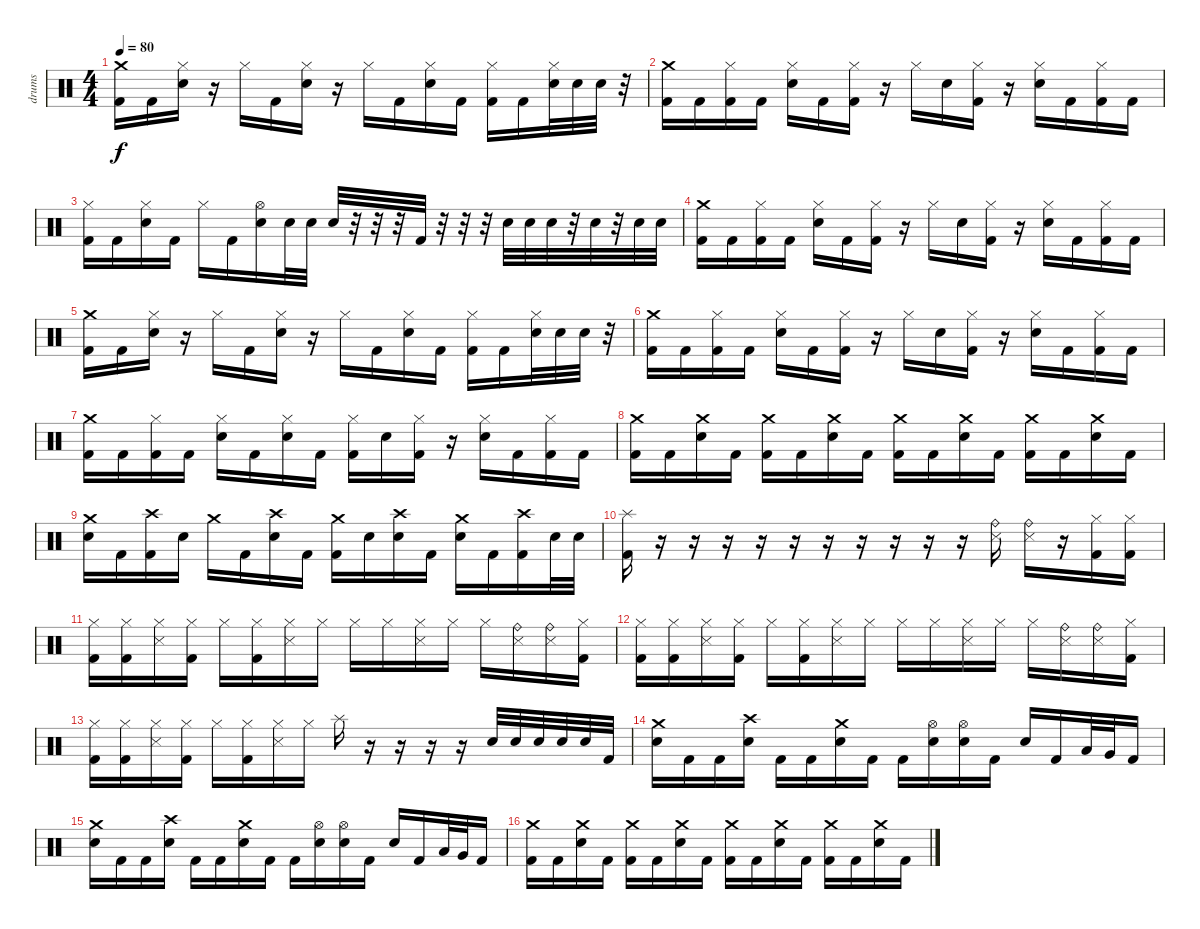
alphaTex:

\track ("drums" "drums") {instrument percussion}
\staff {score}
\articulation defaults
\ts (4 4)
\tempo 80
\clef neutral
\ks c
("Crash medium (hit)" "Kick (hit) 2").16{dy f} "Kick (hit) 2".16 ("Hi-Hat (closed)" "Electric Snare (hit)").16 r.16 "Hi-Hat (closed)".16 "Kick (hit) 2".16 ("Hi-Hat (closed)" "Electric Snare (hit)").16 r.16 "Hi-Hat (closed)".16 "Kick (hit) 2".16 ("Hi-Hat (closed)" "Electric Snare (hit)").16 "Kick (hit) 2".16 ("Hi-Hat (closed)" "Kick (hit) 2").16 "Kick (hit) 2".16 ("Hi-Hat (closed)" "Electric Snare (hit)").32 "Electric Snare (hit)".32 "Electric Snare (hit)".32 r.32 |
("Crash medium (hit)" "Kick (hit) 2").16 "Kick (hit) 2".16 ("Hi-Hat (closed)" "Kick (hit) 2").16 "Kick (hit) 2".16 ("Hi-Hat (closed)" "Electric Snare (hit)").16 "Kick (hit) 2".16 ("Hi-Hat (closed)" "Kick (hit) 2").16 r.16 "Hi-Hat (closed)".16 "Electric Snare (hit)".16 ("Hi-Hat (closed)" "Kick (hit) 2").16 r.16 ("Hi-Hat (closed)" "Electric Snare (hit)").16 "Kick (hit) 2".16 ("Hi-Hat (closed)" "Kick (hit) 2").16 "Kick (hit) 2".16 |
("Hi-Hat (closed)" "Kick (hit) 2").16 "Kick (hit) 2".16 ("Hi-Hat (closed)" "Electric Snare (hit)").16 "Kick (hit) 2".16 "Hi-Hat (closed)".16 "Kick (hit) 2".16 ("Hi-Hat (open)" "Electric Snare (hit)").16 "Electric Snare (hit)".32 "Electric Snare (hit)".32 "Electric Snare (hit)".32 r.32 r.32 r.32 "Kick (hit) 2".32 r.32 r.32 r.32 "Electric Snare (hit)".32 "Electric Snare (hit)".32 "Electric Snare (hit)".32 r.32 "Electric Snare (hit)".32 r.32 "Electric Snare (hit)".32 "Electric Snare (hit)".32 |
("Crash medium (hit)" "Kick (hit) 2").16 "Kick (hit) 2".16 ("Hi-Hat (closed)" "Kick (hit) 2").16 "Kick (hit) 2".16 ("Hi-Hat (closed)" "Electric Snare (hit)").16 "Kick (hit) 2".16 ("Hi-Hat (closed)" "Kick (hit) 2").16 r.16 "Hi-Hat (closed)".16 "Electric Snare (hit)".16 ("Hi-Hat (closed)" "Kick (hit) 2").16 r.16 ("Hi-Hat (closed)" "Electric Snare (hit)").16 "Kick (hit) 2".16 ("Hi-Hat (closed)" "Kick (hit) 2").16 "Kick (hit) 2".16 |
("Crash medium (hit)" "Kick (hit) 2").16 "Kick (hit) 2".16 ("Hi-Hat (closed)" "Electric Snare (hit)").16 r.16 "Hi-Hat (closed)".16 "Kick (hit) 2".16 ("Hi-Hat (closed)" "Electric Snare (hit)").16 r.16 "Hi-Hat (closed)".16 "Kick (hit) 2".16 ("Hi-Hat (closed)" "Electric Snare (hit)").16 "Kick (hit) 2".16 ("Hi-Hat (closed)" "Kick (hit) 2").16 "Kick (hit) 2".16 ("Hi-Hat (closed)" "Electric Snare (hit)").32 "Electric Snare (hit)".32 "Electric Snare (hit)".32 r.32 |
("Crash medium (hit)" "Kick (hit) 2").16 "Kick (hit) 2".16 ("Hi-Hat (closed)" "Kick (hit) 2").16 "Kick (hit) 2".16 ("Hi-Hat (closed)" "Electric Snare (hit)").16 "Kick (hit) 2".16 ("Hi-Hat (closed)" "Kick (hit) 2").16 r.16 "Hi-Hat (closed)".16 "Electric Snare (hit)".16 ("Hi-Hat (closed)" "Kick (hit) 2").16 r.16 ("Hi-Hat (closed)" "Electric Snare (hit)").16 "Kick (hit) 2".16 ("Hi-Hat (closed)" "Kick (hit) 2").16 "Kick (hit) 2".16 |
("Crash medium (hit)" "Kick (hit) 2").16 "Kick (hit) 2".16 ("Hi-Hat (closed)" "Kick (hit) 2").16 "Kick (hit) 2".16 ("Hi-Hat (closed)" "Electric Snare (hit)").16 "Kick (hit) 2".16 ("Hi-Hat (closed)" "Electric Snare (hit)").16 "Kick (hit) 2".16 ("Hi-Hat (closed)" "Kick (hit) 2").16 "Electric Snare (hit)".16 ("Hi-Hat (closed)" "Kick (hit) 2").16 r.16 ("Hi-Hat (closed)" "Electric Snare (hit)").16 "Kick (hit) 2".16 ("Hi-Hat (closed)" "Kick (hit) 2").16 "Kick (hit) 2".16 |
("Crash medium (hit)" "Kick (hit) 2").16 "Kick (hit) 2".16 ("Crash medium (hit)" "Electric Snare (hit)").16 "Kick (hit) 2".16 ("Crash medium (hit)" "Kick (hit) 2").16 "Kick (hit) 2".16 ("Crash medium (hit)" "Electric Snare (hit)").16 "Kick (hit) 2".16 ("Crash medium (hit)" "Kick (hit) 2").16 "Kick (hit) 2".16 ("Crash medium (hit)" "Electric Snare (hit)").16 "Kick (hit) 2".16 ("Crash medium (hit)" "Kick (hit) 2").16 "Kick (hit) 2".16 ("Crash medium (hit)" "Electric Snare (hit)").16 "Kick (hit) 2".16 |
("Crash medium (hit)" "Electric Snare (hit)").16 "Kick (hit) 2".16 ("Crash high (hit)" "Kick (hit) 2").16 "Electric Snare (hit)".16 "Crash medium (hit)".16 "Kick (hit) 2".16 ("Crash high (hit)" "Electric Snare (hit)").16 "Kick (hit) 2".16 ("Crash medium (hit)" "Kick (hit) 2").16 "Electric Snare (hit)".16 ("Crash high (hit)" "Electric Snare (hit)").16 "Kick (hit) 2".16 ("Crash medium (hit)" "Electric Snare (hit)").16 "Kick (hit) 2".16 ("Crash high (hit)" "Kick (hit) 2").16 "Electric Snare (hit)".32 "Electric Snare (hit)".32 |
("Splash (hit)" "Kick (hit) 2").16 r.16 r.16 r.16 r.16 r.16 r.16 r.16 r.16 r.16 r.16 ("Ride (bell)" "Snare (side stick) 3").16 ("Snare (side stick) 3" "Ride (bell)").16 r.16 ("Hi-Hat (closed)" "Kick (hit) 2").16 ("Hi-Hat (closed)" "Kick (hit) 2").16 |
("Hi-Hat (closed)" "Kick (hit) 2").16 ("Hi-Hat (closed)" "Kick (hit) 2").16 ("Hi-Hat (closed)" "Snare (side stick) 3").16 ("Hi-Hat (closed)" "Kick (hit) 2").16 "Hi-Hat (closed)".16 ("Hi-Hat (closed)" "Kick (hit) 2").16 ("Hi-Hat (closed)" "Snare (side stick) 3").16 "Hi-Hat (closed)".16 "Hi-Hat (closed)".16 "Hi-Hat (closed)".16 ("Hi-Hat (closed)" "Snare (side stick) 3").16 "Hi-Hat (closed)".16 "Hi-Hat (closed)".16 ("Ride (bell)" "Snare (side stick) 3").16 ("Ride (bell)" "Snare (side stick) 3").16 ("Hi-Hat (closed)" "Kick (hit) 2").16 |
("Hi-Hat (closed)" "Kick (hit) 2").16 ("Hi-Hat (closed)" "Kick (hit) 2").16 ("Hi-Hat (closed)" "Snare (side stick) 3").16 ("Hi-Hat (closed)" "Kick (hit) 2").16 "Hi-Hat (closed)".16 ("Hi-Hat (closed)" "Kick (hit) 2").16 ("Hi-Hat (closed)" "Snare (side stick) 3").16 "Hi-Hat (closed)".16 "Hi-Hat (closed)".16 "Hi-Hat (closed)".16 ("Hi-Hat (closed)" "Snare (side stick) 3").16 "Hi-Hat (closed)".16 "Hi-Hat (closed)".16 ("Ride (bell)" "Snare (side stick) 3").16 ("Ride (bell)" "Snare (side stick) 3").16 ("Hi-Hat (closed)" "Kick (hit) 2").16 |
("Hi-Hat (closed)" "Kick (hit) 2").16 ("Hi-Hat (closed)" "Kick (hit) 2").16 ("Hi-Hat (closed)" "Snare (side stick) 3").16 ("Hi-Hat (closed)" "Kick (hit) 2").16 "Hi-Hat (closed)".16 ("Hi-Hat (closed)" "Kick (hit) 2").16 ("Hi-Hat (closed)" "Snare (side stick) 3").16 "Hi-Hat (closed)".16 "Splash (hit)".16 r.16 r.16 r.16 r.16 "Electric Snare (hit)".32 "Electric Snare (hit)".32 "Electric Snare (hit)".32 "Electric Snare (hit)".32 "Electric Snare (hit)".32 "Kick (hit) 2".32 |
("Crash medium (hit)" "Electric Snare (hit)").16 "Kick (hit) 2".16 "Kick (hit) 2".16 ("Crash high (hit)" "Electric Snare (hit)").16 "Kick (hit) 2".16 "Kick (hit) 2".16 ("Crash medium (hit)" "Electric Snare (hit)").16 "Kick (hit) 2".16 "Kick (hit) 2".16 ("Hi-Hat (open)" "Electric Snare (hit)").16 ("Hi-Hat (open)" "Electric Snare (hit)").16 "Kick (hit) 2".16 "Electric Snare (hit)".16 "Kick (hit) 2".16 "Low Floor Tom (hit)".32 "Very Low Tom (hit)".32 "Kick (hit) 2".16 |
("Crash medium (hit)" "Electric Snare (hit)").16 "Kick (hit) 2".16 "Kick (hit) 2".16 ("Crash high (hit)" "Electric Snare (hit)").16 "Kick (hit) 2".16 "Kick (hit) 2".16 ("Crash medium (hit)" "Electric Snare (hit)").16 "Kick (hit) 2".16 "Kick (hit) 2".16 ("Hi-Hat (open)" "Electric Snare (hit)").16 ("Hi-Hat (open)" "Electric Snare (hit)").16 "Kick (hit) 2".16 "Electric Snare (hit)".16 "Kick (hit) 2".16 "Low Floor Tom (hit)".32 "Very Low Tom (hit)".32 "Kick (hit) 2".16 |
("Crash medium (hit)" "Kick (hit) 2").16 "Kick (hit) 2".16 ("Crash medium (hit)" "Electric Snare (hit)").16 "Kick (hit) 2".16 ("Crash medium (hit)" "Kick (hit) 2").16 "Kick (hit) 2".16 ("Crash medium (hit)" "Electric Snare (hit)").16 "Kick (hit) 2".16 ("Crash medium (hit)" "Kick (hit) 2").16 "Kick (hit) 2".16 ("Crash medium (hit)" "Electric Snare (hit)").16 "Kick (hit) 2".16 ("Crash medium (hit)" "Kick (hit) 2").16 "Kick (hit) 2".16 ("Crash medium (hit)" "Electric Snare (hit)").16 "Kick (hit) 2".16
